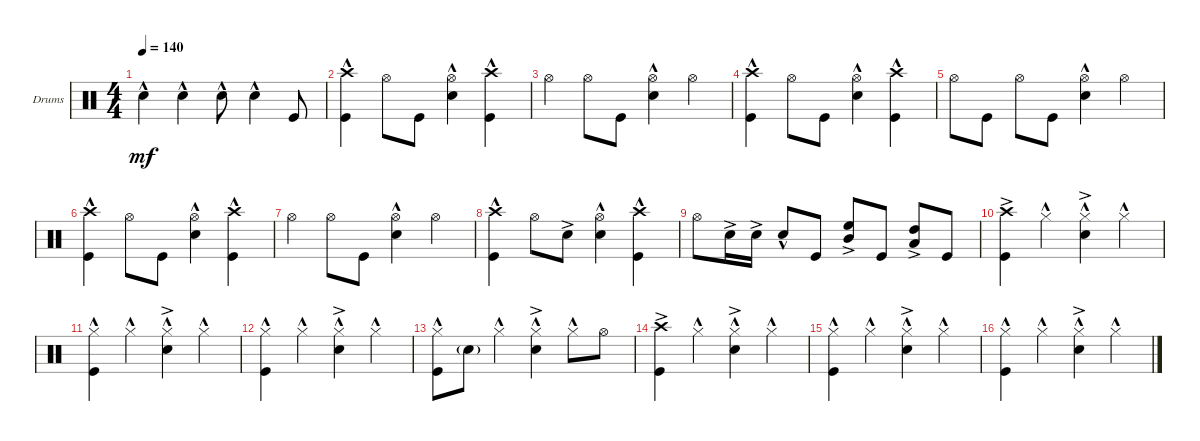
\bracketExtendMode groupsimilarinstruments
\firstSystemTrackNameOrientation horizontal
\otherSystemsTrackNameOrientation horizontal
\track ("Drumkit" "Drums") {instrument percussion}
\staff {score}
\articulation defaults
\ts (4 4)
\tempo 140
\clef neutral
\ks c "Snare (hit) 2"{hac}.4{dy mf} "Snare (hit) 2"{hac}.4 "Snare (hit) 2"{hac}.8 "Snare (hit) 2"{hac}.4 "Kick (hit)".8
|
("Kick (hit)" "Crash high (hit)"{hac}).4 "Hi-Hat (open)".8 "Kick (hit)".8 ("Hi-Hat (open)" "Snare (hit) 2"{hac}).4 ("Kick (hit)" "Crash high (hit)"{hac}).4 |
"Hi-Hat (open)".4 "Hi-Hat (open)".8 "Kick (hit)".8 ("Hi-Hat (open)" "Snare (hit) 2"{hac}).4 "Hi-Hat (open)".4 |
("Kick (hit)" "Crash high (hit)"{hac}).4 "Hi-Hat (open)".8 "Kick (hit)".8 ("Hi-Hat (open)" "Snare (hit) 2"{hac}).4 ("Kick (hit)" "Crash high (hit)"{hac}).4 |
"Hi-Hat (open)".8 "Kick (hit)".8 "Hi-Hat (open)".8 "Kick (hit)".8 ("Hi-Hat (open)" "Snare (hit) 2"{hac}).4 "Hi-Hat (open)".4 |
("Kick (hit)" "Crash high (hit)"{hac}).4 "Hi-Hat (open)".8 "Kick (hit)".8 ("Hi-Hat (open)" "Snare (hit) 2"{hac}).4 ("Kick (hit)" "Crash high (hit)"{hac}).4 |
"Hi-Hat (open)".4 "Hi-Hat (open)".8 "Kick (hit)".8 ("Hi-Hat (open)" "Snare (hit) 2"{hac}).4 "Hi-Hat (open)".4 |
("Kick (hit)" "Crash high (hit)"{hac}).4 "Hi-Hat (open)".8 "Snare (hit) 2"{ac}.8 ("Hi-Hat (open)" "Snare (hit) 2"{hac}).4 ("Kick (hit)" "Crash high (hit)"{hac}).4 |
"Hi-Hat (open)".8 "Snare (hit) 2"{ac}.16 "Snare (hit) 2"{ac}.16 "Snare (hit) 2"{hac}.8 "Kick (hit)".8 ("High Floor Tom (hit)"{ac} "Mid Tom (hit)"{ac}).8 "Kick (hit)".8 ("High Tom (hit)"{ac} "Low Tom (hit)"{ac}).8 "Kick (hit)".8 |
("Kick (hit)" "Crash high (hit)"{ac}).4 "Hi-Hat (closed)"{hac}.4 ("Hi-Hat (closed)"{hac} "Snare (hit) 2"{ac}).4 "Hi-Hat (closed)"{hac}.4 |
("Kick (hit)" "Hi-Hat (closed)"{hac}).4 "Hi-Hat (closed)"{hac}.4 ("Hi-Hat (closed)"{hac} "Snare (hit) 2"{ac}).4 "Hi-Hat (closed)"{hac}.4 |
("Kick (hit)" "Hi-Hat (closed)"{hac}).4 "Hi-Hat (closed)"{hac}.4 ("Hi-Hat (closed)"{hac} "Snare (hit) 2"{ac}).4 "Hi-Hat (closed)"{hac}.4 |
("Kick (hit)" "Hi-Hat (closed)"{hac}).8 "Snare (hit) 2"{g}.8 "Hi-Hat (closed)"{hac}.4 ("Hi-Hat (closed)"{hac} "Snare (hit) 2"{ac}).4 "Hi-Hat (closed)"{hac}.8 "Hi-Hat (open)".8 |
("Kick (hit)" "Crash high (hit)"{ac}).4 "Hi-Hat (closed)"{hac}.4 ("Hi-Hat (closed)"{hac} "Snare (hit) 2"{ac}).4 "Hi-Hat (closed)"{hac}.4 |
("Kick (hit)" "Hi-Hat (closed)"{hac}).4 "Hi-Hat (closed)"{hac}.4 ("Hi-Hat (closed)"{hac} "Snare (hit) 2"{ac}).4 "Hi-Hat (closed)"{hac}.4 |
("Kick (hit)" "Hi-Hat (closed)"{hac}).4 "Hi-Hat (closed)"{hac}.4 ("Hi-Hat (closed)"{hac} "Snare (hit) 2"{ac}).4 "Hi-Hat (closed)"{hac}.4
